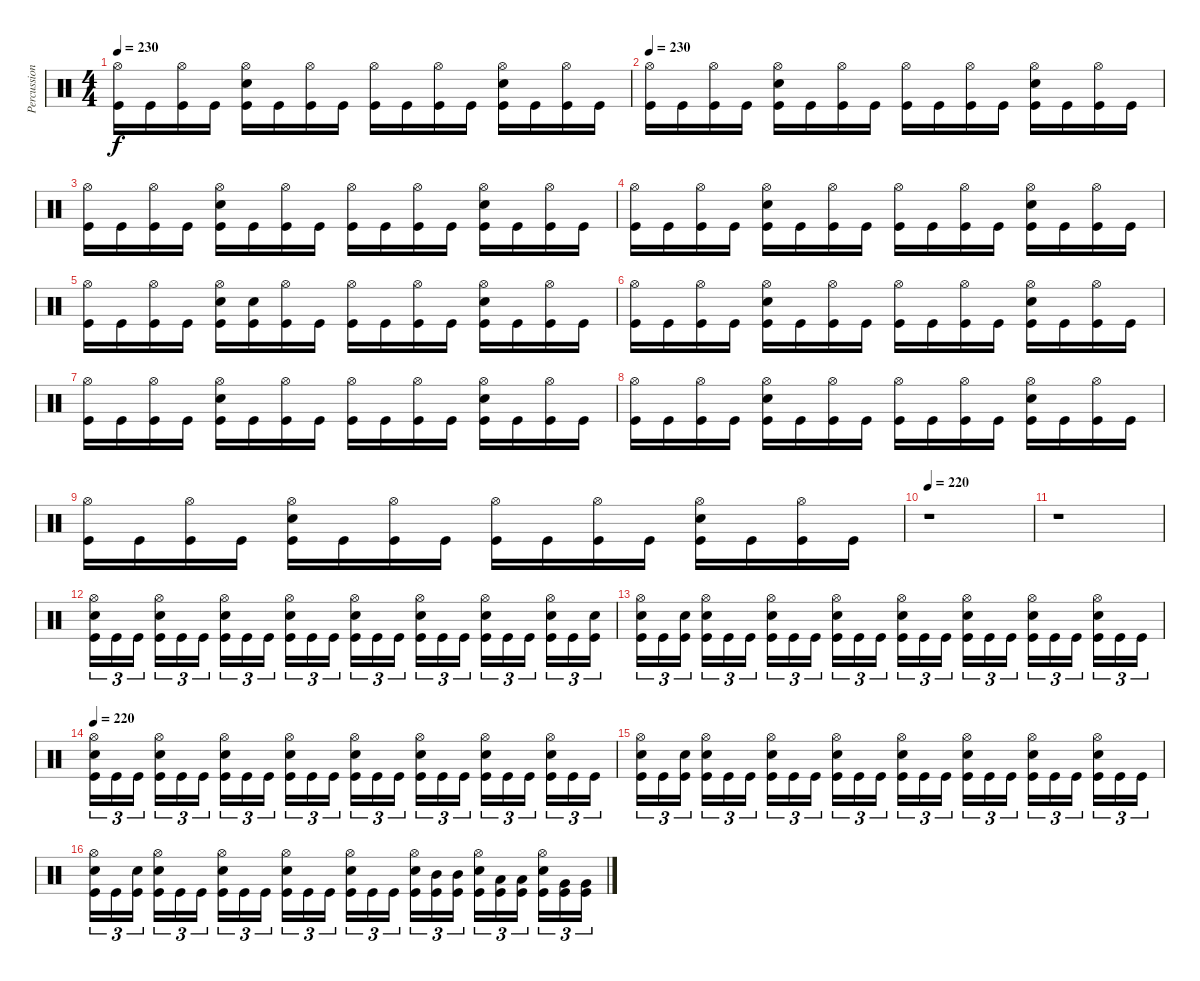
\track ("Percussion" "Percussion") {instrument percussion}
\staff {score}
\articulation defaults
\ts (4 4)
\tempo 230
\clef neutral
\ks c
("Hi-Hat (open)" "Kick (hit)").16{dy f} "Kick (hit)".16 ("Hi-Hat (open)" "Kick (hit)").16 "Kick (hit)".16 ("Hi-Hat (open)" "Electric Snare (hit)" "Kick (hit)").16 "Kick (hit)".16 ("Hi-Hat (open)" "Kick (hit)").16 "Kick (hit)".16 ("Hi-Hat (open)" "Kick (hit)").16 "Kick (hit)".16 ("Hi-Hat (open)" "Kick (hit)").16 "Kick (hit)".16 ("Hi-Hat (open)" "Electric Snare (hit)" "Kick (hit)").16 "Kick (hit)".16 ("Hi-Hat (open)" "Kick (hit)").16 "Kick (hit)".16 |
\tempo 230
("Hi-Hat (open)" "Kick (hit)").16 "Kick (hit)".16 ("Hi-Hat (open)" "Kick (hit)").16 "Kick (hit)".16 ("Hi-Hat (open)" "Electric Snare (hit)" "Kick (hit)").16 "Kick (hit)".16 ("Hi-Hat (open)" "Kick (hit)").16 "Kick (hit)".16 ("Hi-Hat (open)" "Kick (hit)").16 "Kick (hit)".16 ("Hi-Hat (open)" "Kick (hit)").16 "Kick (hit)".16 ("Hi-Hat (open)" "Electric Snare (hit)" "Kick (hit)").16 "Kick (hit)".16 ("Hi-Hat (open)" "Kick (hit)").16 "Kick (hit)".16 |
("Hi-Hat (open)" "Kick (hit)").16 "Kick (hit)".16 ("Hi-Hat (open)" "Kick (hit)").16 "Kick (hit)".16 ("Hi-Hat (open)" "Electric Snare (hit)" "Kick (hit)").16 "Kick (hit)".16 ("Hi-Hat (open)" "Kick (hit)").16 "Kick (hit)".16 ("Hi-Hat (open)" "Kick (hit)").16 "Kick (hit)".16 ("Hi-Hat (open)" "Kick (hit)").16 "Kick (hit)".16 ("Hi-Hat (open)" "Electric Snare (hit)" "Kick (hit)").16 "Kick (hit)".16 ("Hi-Hat (open)" "Kick (hit)").16 "Kick (hit)".16 |
("Hi-Hat (open)" "Kick (hit)").16 "Kick (hit)".16 ("Hi-Hat (open)" "Kick (hit)").16 "Kick (hit)".16 ("Hi-Hat (open)" "Electric Snare (hit)" "Kick (hit)").16 "Kick (hit)".16 ("Hi-Hat (open)" "Kick (hit)").16 "Kick (hit)".16 ("Hi-Hat (open)" "Kick (hit)").16 "Kick (hit)".16 ("Hi-Hat (open)" "Kick (hit)").16 "Kick (hit)".16 ("Hi-Hat (open)" "Electric Snare (hit)" "Kick (hit)").16 "Kick (hit)".16 ("Hi-Hat (open)" "Kick (hit)").16 "Kick (hit)".16 |
("Hi-Hat (open)" "Kick (hit)").16 "Kick (hit)".16 ("Hi-Hat (open)" "Kick (hit)").16 "Kick (hit)".16 ("Hi-Hat (open)" "Electric Snare (hit)" "Kick (hit)").16 ("Electric Snare (hit)" "Kick (hit)").16 ("Hi-Hat (open)" "Kick (hit)").16 "Kick (hit)".16 ("Hi-Hat (open)" "Kick (hit)").16 "Kick (hit)".16 ("Hi-Hat (open)" "Kick (hit)").16 "Kick (hit)".16 ("Hi-Hat (open)" "Electric Snare (hit)" "Kick (hit)").16 "Kick (hit)".16 ("Hi-Hat (open)" "Kick (hit)").16 "Kick (hit)".16 |
("Hi-Hat (open)" "Kick (hit)").16 "Kick (hit)".16 ("Hi-Hat (open)" "Kick (hit)").16 "Kick (hit)".16 ("Hi-Hat (open)" "Electric Snare (hit)" "Kick (hit)").16 "Kick (hit)".16 ("Hi-Hat (open)" "Kick (hit)").16 "Kick (hit)".16 ("Hi-Hat (open)" "Kick (hit)").16 "Kick (hit)".16 ("Hi-Hat (open)" "Kick (hit)").16 "Kick (hit)".16 ("Hi-Hat (open)" "Electric Snare (hit)" "Kick (hit)").16 "Kick (hit)".16 ("Hi-Hat (open)" "Kick (hit)").16 "Kick (hit)".16 |
("Hi-Hat (open)" "Kick (hit)").16 "Kick (hit)".16 ("Hi-Hat (open)" "Kick (hit)").16 "Kick (hit)".16 ("Hi-Hat (open)" "Electric Snare (hit)" "Kick (hit)").16 "Kick (hit)".16 ("Hi-Hat (open)" "Kick (hit)").16 "Kick (hit)".16 ("Hi-Hat (open)" "Kick (hit)").16 "Kick (hit)".16 ("Hi-Hat (open)" "Kick (hit)").16 "Kick (hit)".16 ("Hi-Hat (open)" "Electric Snare (hit)" "Kick (hit)").16 "Kick (hit)".16 ("Hi-Hat (open)" "Kick (hit)").16 "Kick (hit)".16 |
("Hi-Hat (open)" "Kick (hit)").16 "Kick (hit)".16 ("Hi-Hat (open)" "Kick (hit)").16 "Kick (hit)".16 ("Hi-Hat (open)" "Electric Snare (hit)" "Kick (hit)").16 "Kick (hit)".16 ("Hi-Hat (open)" "Kick (hit)").16 "Kick (hit)".16 ("Hi-Hat (open)" "Kick (hit)").16 "Kick (hit)".16 ("Hi-Hat (open)" "Kick (hit)").16 "Kick (hit)".16 ("Hi-Hat (open)" "Electric Snare (hit)" "Kick (hit)").16 "Kick (hit)".16 ("Hi-Hat (open)" "Kick (hit)").16 "Kick (hit)".16 |
("Hi-Hat (open)" "Kick (hit)").16 "Kick (hit)".16 ("Hi-Hat (open)" "Kick (hit)").16 "Kick (hit)".16 ("Hi-Hat (open)" "Electric Snare (hit)" "Kick (hit)").16 "Kick (hit)".16 ("Hi-Hat (open)" "Kick (hit)").16 "Kick (hit)".16 ("Hi-Hat (open)" "Kick (hit)").16 "Kick (hit)".16 ("Hi-Hat (open)" "Kick (hit)").16 "Kick (hit)".16 ("Hi-Hat (open)" "Electric Snare (hit)" "Kick (hit)").16 "Kick (hit)".16 ("Hi-Hat (open)" "Kick (hit)").16 "Kick (hit)".16 |
\tempo 220
r.1 |
r.1 |
("Hi-Hat (open)" "Electric Snare (hit)" "Kick (hit)").16{tu (3 2)} "Kick (hit)".16{tu (3 2)} "Kick (hit)".16{tu (3 2)} ("Hi-Hat (open)" "Electric Snare (hit)" "Kick (hit)").16{tu (3 2)} "Kick (hit)".16{tu (3 2)} "Kick (hit)".16{tu (3 2)} ("Hi-Hat (open)" "Electric Snare (hit)" "Kick (hit)").16{tu (3 2)} "Kick (hit)".16{tu (3 2)} "Kick (hit)".16{tu (3 2)} ("Hi-Hat (open)" "Electric Snare (hit)" "Kick (hit)").16{tu (3 2)} "Kick (hit)".16{tu (3 2)} "Kick (hit)".16{tu (3 2)} ("Hi-Hat (open)" "Electric Snare (hit)" "Kick (hit)").16{tu (3 2)} "Kick (hit)".16{tu (3 2)} "Kick (hit)".16{tu (3 2)} ("Hi-Hat (open)" "Electric Snare (hit)" "Kick (hit)").16{tu (3 2)} "Kick (hit)".16{tu (3 2)} "Kick (hit)".16{tu (3 2)} ("Hi-Hat (open)" "Electric Snare (hit)" "Kick (hit)").16{tu (3 2)} "Kick (hit)".16{tu (3 2)} "Kick (hit)".16{tu (3 2)} ("Hi-Hat (open)" "Electric Snare (hit)" "Kick (hit)").16{tu (3 2)} "Kick (hit)".16{tu (3 2)} ("Electric Snare (hit)" "Kick (hit)").16{tu (3 2)} |
("Hi-Hat (open)" "Electric Snare (hit)" "Kick (hit)").16{tu (3 2)} "Kick (hit)".16{tu (3 2)} ("Electric Snare (hit)" "Kick (hit)").16{tu (3 2)} ("Hi-Hat (open)" "Electric Snare (hit)" "Kick (hit)").16{tu (3 2)} "Kick (hit)".16{tu (3 2)} "Kick (hit)".16{tu (3 2)} ("Hi-Hat (open)" "Electric Snare (hit)" "Kick (hit)").16{tu (3 2)} "Kick (hit)".16{tu (3 2)} "Kick (hit)".16{tu (3 2)} ("Hi-Hat (open)" "Electric Snare (hit)" "Kick (hit)").16{tu (3 2)} "Kick (hit)".16{tu (3 2)} "Kick (hit)".16{tu (3 2)} ("Hi-Hat (open)" "Electric Snare (hit)" "Kick (hit)").16{tu (3 2)} "Kick (hit)".16{tu (3 2)} "Kick (hit)".16{tu (3 2)} ("Hi-Hat (open)" "Electric Snare (hit)" "Kick (hit)").16{tu (3 2)} "Kick (hit)".16{tu (3 2)} "Kick (hit)".16{tu (3 2)} ("Hi-Hat (open)" "Electric Snare (hit)" "Kick (hit)").16{tu (3 2)} "Kick (hit)".16{tu (3 2)} "Kick (hit)".16{tu (3 2)} ("Hi-Hat (open)" "Electric Snare (hit)" "Kick (hit)").16{tu (3 2)} "Kick (hit)".16{tu (3 2)} "Kick (hit)".16{tu (3 2)} |
\tempo 220
("Hi-Hat (open)" "Electric Snare (hit)" "Kick (hit)").16{tu (3 2)} "Kick (hit)".16{tu (3 2)} "Kick (hit)".16{tu (3 2)} ("Hi-Hat (open)" "Electric Snare (hit)" "Kick (hit)").16{tu (3 2)} "Kick (hit)".16{tu (3 2)} "Kick (hit)".16{tu (3 2)} ("Hi-Hat (open)" "Electric Snare (hit)" "Kick (hit)").16{tu (3 2)} "Kick (hit)".16{tu (3 2)} "Kick (hit)".16{tu (3 2)} ("Hi-Hat (open)" "Electric Snare (hit)" "Kick (hit)").16{tu (3 2)} "Kick (hit)".16{tu (3 2)} "Kick (hit)".16{tu (3 2)} ("Hi-Hat (open)" "Electric Snare (hit)" "Kick (hit)").16{tu (3 2)} "Kick (hit)".16{tu (3 2)} "Kick (hit)".16{tu (3 2)} ("Hi-Hat (open)" "Electric Snare (hit)" "Kick (hit)").16{tu (3 2)} "Kick (hit)".16{tu (3 2)} "Kick (hit)".16{tu (3 2)} ("Hi-Hat (open)" "Electric Snare (hit)" "Kick (hit)").16{tu (3 2)} "Kick (hit)".16{tu (3 2)} "Kick (hit)".16{tu (3 2)} ("Hi-Hat (open)" "Electric Snare (hit)" "Kick (hit)").16{tu (3 2)} "Kick (hit)".16{tu (3 2)} "Kick (hit)".16{tu (3 2)} |
("Hi-Hat (open)" "Electric Snare (hit)" "Kick (hit)").16{tu (3 2)} "Kick (hit)".16{tu (3 2)} ("Electric Snare (hit)" "Kick (hit)").16{tu (3 2)} ("Hi-Hat (open)" "Electric Snare (hit)" "Kick (hit)").16{tu (3 2)} "Kick (hit)".16{tu (3 2)} "Kick (hit)".16{tu (3 2)} ("Hi-Hat (open)" "Electric Snare (hit)" "Kick (hit)").16{tu (3 2)} "Kick (hit)".16{tu (3 2)} "Kick (hit)".16{tu (3 2)} ("Hi-Hat (open)" "Electric Snare (hit)" "Kick (hit)").16{tu (3 2)} "Kick (hit)".16{tu (3 2)} "Kick (hit)".16{tu (3 2)} ("Hi-Hat (open)" "Electric Snare (hit)" "Kick (hit)").16{tu (3 2)} "Kick (hit)".16{tu (3 2)} "Kick (hit)".16{tu (3 2)} ("Hi-Hat (open)" "Electric Snare (hit)" "Kick (hit)").16{tu (3 2)} "Kick (hit)".16{tu (3 2)} "Kick (hit)".16{tu (3 2)} ("Hi-Hat (open)" "Electric Snare (hit)" "Kick (hit)").16{tu (3 2)} "Kick (hit)".16{tu (3 2)} "Kick (hit)".16{tu (3 2)} ("Hi-Hat (open)" "Electric Snare (hit)" "Kick (hit)").16{tu (3 2)} "Kick (hit)".16{tu (3 2)} "Kick (hit)".16{tu (3 2)} |
("Hi-Hat (open)" "Electric Snare (hit)" "Kick (hit)").16{tu (3 2)} "Kick (hit)".16{tu (3 2)} ("Electric Snare (hit)" "Kick (hit)").16{tu (3 2)} ("Hi-Hat (open)" "Electric Snare (hit)" "Kick (hit)").16{tu (3 2)} "Kick (hit)".16{tu (3 2)} "Kick (hit)".16{tu (3 2)} ("Hi-Hat (open)" "Electric Snare (hit)" "Kick (hit)").16{tu (3 2)} "Kick (hit)".16{tu (3 2)} "Kick (hit)".16{tu (3 2)} ("Hi-Hat (open)" "Electric Snare (hit)" "Kick (hit)").16{tu (3 2)} "Kick (hit)".16{tu (3 2)} "Kick (hit)".16{tu (3 2)} ("Hi-Hat (open)" "Electric Snare (hit)" "Kick (hit)").16{tu (3 2)} "Kick (hit)".16{tu (3 2)} "Kick (hit)".16{tu (3 2)} ("Hi-Hat (open)" "Electric Snare (hit)" "Kick (hit)").16{tu (3 2)} ("Mid Tom (hit)" "Kick (hit)").16{tu (3 2)} ("Mid Tom (hit)" "Kick (hit)").16{tu (3 2)} ("Hi-Hat (open)" "Electric Snare (hit)" "Kick (hit)").16{tu (3 2)} ("Low Tom (hit)" "Kick (hit)").16{tu (3 2)} ("Low Tom (hit)" "Kick (hit)").16{tu (3 2)} ("Hi-Hat (open)" "Electric Snare (hit)" "Kick (hit)").16{tu (3 2)} ("Very Low Tom (hit)" "Kick (hit)").16{tu (3 2)} ("Very Low Tom (hit)" "Kick (hit)").16{tu (3 2)}
